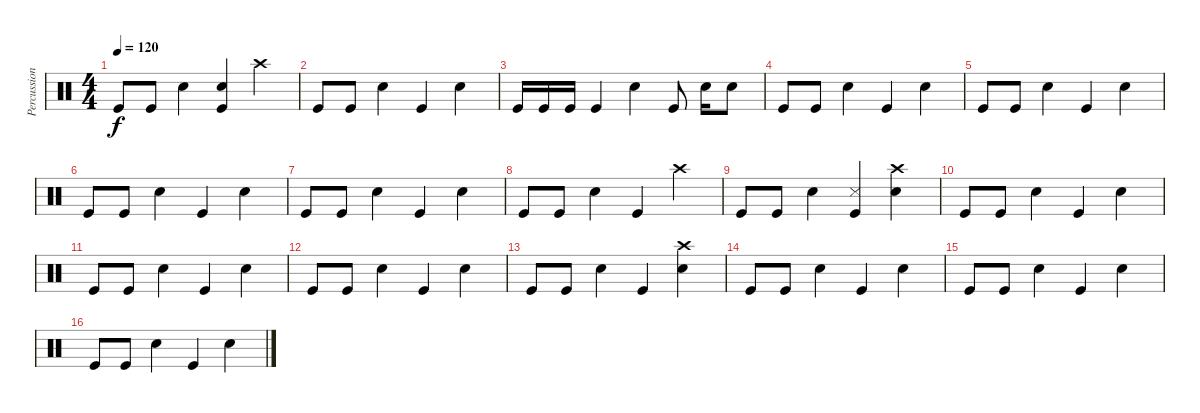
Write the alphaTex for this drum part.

\track ("Percussion" "Percussion") {instrument percussion}
\staff {score}
\articulation defaults
\ts (4 4)
\tempo 120
\clef neutral
\ks c "Kick (hit)".8{dy f} "Kick (hit)".8 "Electric Snare (hit)".4
("Kick (hit)" "Hand Clap (hit)").4 "Crash high (hit)".4 |
"Kick (hit)".8 "Kick (hit)".8 "Electric Snare (hit)".4 "Kick (hit)".4 "Electric Snare (hit)".4 |
"Kick (hit)".16 "Kick (hit)".16 "Kick (hit)".16 "Kick (hit)".4 "Electric Snare (hit)".4 "Kick (hit)".8 "Electric Snare (hit)".16 "Electric Snare (hit)".8 |
"Kick (hit)".8 "Kick (hit)".8 "Electric Snare (hit)".4 "Kick (hit)".4 "Electric Snare (hit)".4 |
"Kick (hit)".8 "Kick (hit)".8 "Electric Snare (hit)".4 "Kick (hit)".4 "Electric Snare (hit)".4 |
"Kick (hit)".8 "Kick (hit)".8 "Electric Snare (hit)".4 "Kick (hit)".4 "Electric Snare (hit)".4 |
"Kick (hit)".8 "Kick (hit)".8 "Electric Snare (hit)".4 "Kick (hit)".4 "Electric Snare (hit)".4 |
"Kick (hit)".8 "Kick (hit)".8 "Electric Snare (hit)".4 "Kick (hit)".4 "Crash high (hit)".4 |
"Kick (hit)".8 "Kick (hit)".8 "Electric Snare (hit)".4 ("Kick (hit)" "Snare (side stick) 3").4 ("Electric Snare (hit)" "Crash high (hit)").4 |
"Kick (hit)".8 "Kick (hit)".8 "Electric Snare (hit)".4 "Kick (hit)".4 "Electric Snare (hit)".4 |
"Kick (hit)".8 "Kick (hit)".8 "Electric Snare (hit)".4 "Kick (hit)".4 "Electric Snare (hit)".4 |
"Kick (hit)".8 "Kick (hit)".8 "Electric Snare (hit)".4 "Kick (hit)".4 "Electric Snare (hit)".4 |
"Kick (hit)".8 "Kick (hit)".8 "Electric Snare (hit)".4 "Kick (hit)".4 ("Electric Snare (hit)" "Crash high (hit)").4 |
"Kick (hit)".8 "Kick (hit)".8 "Electric Snare (hit)".4 "Kick (hit)".4 "Electric Snare (hit)".4 |
"Kick (hit)".8 "Kick (hit)".8 "Electric Snare (hit)".4 "Kick (hit)".4 "Electric Snare (hit)".4 |
"Kick (hit)".8 "Kick (hit)".8 "Electric Snare (hit)".4 "Kick (hit)".4 "Electric Snare (hit)".4
